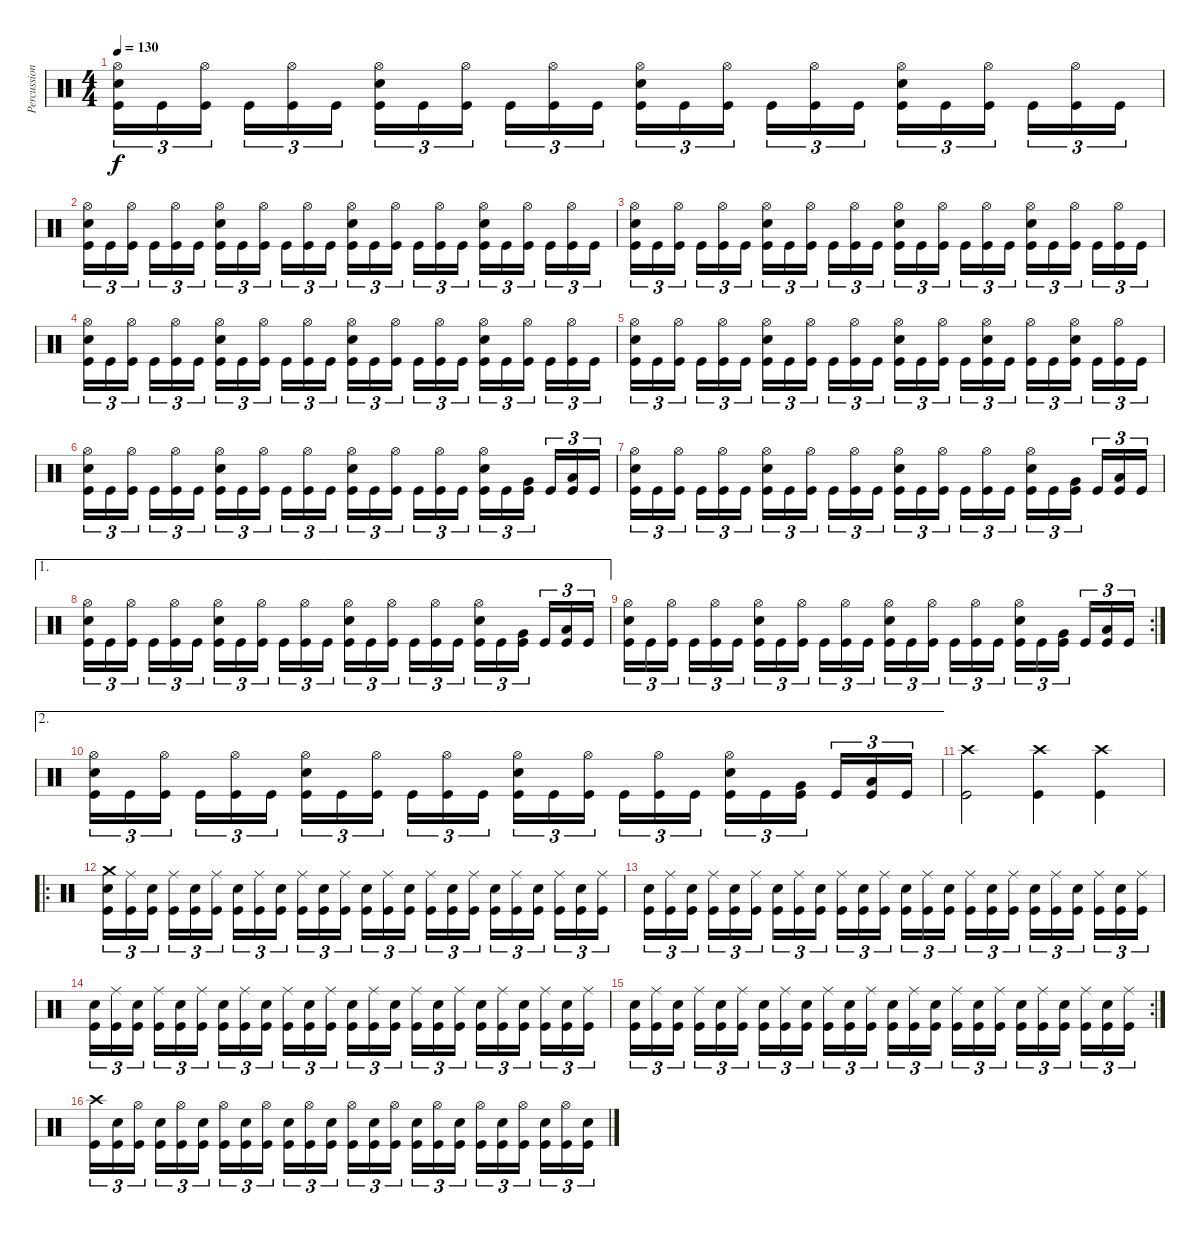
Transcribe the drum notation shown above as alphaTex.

\track ("Percussion" "Percussion") {instrument percussion}
\staff {score}
\articulation defaults
\ts (4 4)
\tempo 130
\clef neutral
\ks c
("Hi-Hat (open)" "Electric Snare (hit)" "Kick (hit)").16{tu (3 2) dy f} "Kick (hit)".16{tu (3 2)} ("Hi-Hat (open)" "Kick (hit)").16{tu (3 2)} "Kick (hit)".16{tu (3 2)} ("Hi-Hat (open)" "Kick (hit)").16{tu (3 2)} "Kick (hit)".16{tu (3 2)} ("Hi-Hat (open)" "Electric Snare (hit)" "Kick (hit)").16{tu (3 2)} "Kick (hit)".16{tu (3 2)} ("Hi-Hat (open)" "Kick (hit)").16{tu (3 2)} "Kick (hit)".16{tu (3 2)} ("Hi-Hat (open)" "Kick (hit)").16{tu (3 2)} "Kick (hit)".16{tu (3 2)} ("Hi-Hat (open)" "Electric Snare (hit)" "Kick (hit)").16{tu (3 2)} "Kick (hit)".16{tu (3 2)} ("Hi-Hat (open)" "Kick (hit)").16{tu (3 2)} "Kick (hit)".16{tu (3 2)} ("Hi-Hat (open)" "Kick (hit)").16{tu (3 2)} "Kick (hit)".16{tu (3 2)} ("Hi-Hat (open)" "Electric Snare (hit)" "Kick (hit)").16{tu (3 2)} "Kick (hit)".16{tu (3 2)} ("Hi-Hat (open)" "Kick (hit)").16{tu (3 2)} "Kick (hit)".16{tu (3 2)} ("Hi-Hat (open)" "Kick (hit)").16{tu (3 2)} "Kick (hit)".16{tu (3 2)} |
("Hi-Hat (open)" "Electric Snare (hit)" "Kick (hit)").16{tu (3 2)} "Kick (hit)".16{tu (3 2)} ("Hi-Hat (open)" "Kick (hit)").16{tu (3 2)} "Kick (hit)".16{tu (3 2)} ("Hi-Hat (open)" "Kick (hit)").16{tu (3 2)} "Kick (hit)".16{tu (3 2)} ("Hi-Hat (open)" "Electric Snare (hit)" "Kick (hit)").16{tu (3 2)} "Kick (hit)".16{tu (3 2)} ("Hi-Hat (open)" "Kick (hit)").16{tu (3 2)} "Kick (hit)".16{tu (3 2)} ("Hi-Hat (open)" "Kick (hit)").16{tu (3 2)} "Kick (hit)".16{tu (3 2)} ("Hi-Hat (open)" "Electric Snare (hit)" "Kick (hit)").16{tu (3 2)} "Kick (hit)".16{tu (3 2)} ("Hi-Hat (open)" "Kick (hit)").16{tu (3 2)} "Kick (hit)".16{tu (3 2)} ("Hi-Hat (open)" "Kick (hit)").16{tu (3 2)} "Kick (hit)".16{tu (3 2)} ("Hi-Hat (open)" "Electric Snare (hit)" "Kick (hit)").16{tu (3 2)} "Kick (hit)".16{tu (3 2)} ("Hi-Hat (open)" "Kick (hit)").16{tu (3 2)} "Kick (hit)".16{tu (3 2)} ("Hi-Hat (open)" "Kick (hit)").16{tu (3 2)} "Kick (hit)".16{tu (3 2)} |
("Hi-Hat (open)" "Electric Snare (hit)" "Kick (hit)").16{tu (3 2)} "Kick (hit)".16{tu (3 2)} ("Hi-Hat (open)" "Kick (hit)").16{tu (3 2)} "Kick (hit)".16{tu (3 2)} ("Hi-Hat (open)" "Kick (hit)").16{tu (3 2)} "Kick (hit)".16{tu (3 2)} ("Hi-Hat (open)" "Electric Snare (hit)" "Kick (hit)").16{tu (3 2)} "Kick (hit)".16{tu (3 2)} ("Hi-Hat (open)" "Kick (hit)").16{tu (3 2)} "Kick (hit)".16{tu (3 2)} ("Hi-Hat (open)" "Kick (hit)").16{tu (3 2)} "Kick (hit)".16{tu (3 2)} ("Hi-Hat (open)" "Electric Snare (hit)" "Kick (hit)").16{tu (3 2)} "Kick (hit)".16{tu (3 2)} ("Hi-Hat (open)" "Kick (hit)").16{tu (3 2)} "Kick (hit)".16{tu (3 2)} ("Hi-Hat (open)" "Kick (hit)").16{tu (3 2)} "Kick (hit)".16{tu (3 2)} ("Hi-Hat (open)" "Electric Snare (hit)" "Kick (hit)").16{tu (3 2)} "Kick (hit)".16{tu (3 2)} ("Hi-Hat (open)" "Kick (hit)").16{tu (3 2)} "Kick (hit)".16{tu (3 2)} ("Hi-Hat (open)" "Kick (hit)").16{tu (3 2)} "Kick (hit)".16{tu (3 2)} |
("Hi-Hat (open)" "Electric Snare (hit)" "Kick (hit)").16{tu (3 2)} "Kick (hit)".16{tu (3 2)} ("Hi-Hat (open)" "Kick (hit)").16{tu (3 2)} "Kick (hit)".16{tu (3 2)} ("Hi-Hat (open)" "Kick (hit)").16{tu (3 2)} "Kick (hit)".16{tu (3 2)} ("Hi-Hat (open)" "Electric Snare (hit)" "Kick (hit)").16{tu (3 2)} "Kick (hit)".16{tu (3 2)} ("Hi-Hat (open)" "Kick (hit)").16{tu (3 2)} "Kick (hit)".16{tu (3 2)} ("Hi-Hat (open)" "Kick (hit)").16{tu (3 2)} "Kick (hit)".16{tu (3 2)} ("Hi-Hat (open)" "Electric Snare (hit)" "Kick (hit)").16{tu (3 2)} "Kick (hit)".16{tu (3 2)} ("Hi-Hat (open)" "Kick (hit)").16{tu (3 2)} "Kick (hit)".16{tu (3 2)} ("Hi-Hat (open)" "Kick (hit)").16{tu (3 2)} "Kick (hit)".16{tu (3 2)} ("Hi-Hat (open)" "Electric Snare (hit)" "Kick (hit)").16{tu (3 2)} "Kick (hit)".16{tu (3 2)} ("Hi-Hat (open)" "Kick (hit)").16{tu (3 2)} "Kick (hit)".16{tu (3 2)} ("Hi-Hat (open)" "Kick (hit)").16{tu (3 2)} "Kick (hit)".16{tu (3 2)} |
("Hi-Hat (open)" "Electric Snare (hit)" "Kick (hit)").16{tu (3 2)} "Kick (hit)".16{tu (3 2)} ("Hi-Hat (open)" "Kick (hit)").16{tu (3 2)} "Kick (hit)".16{tu (3 2)} ("Hi-Hat (open)" "Kick (hit)").16{tu (3 2)} "Kick (hit)".16{tu (3 2)} ("Hi-Hat (open)" "Electric Snare (hit)" "Kick (hit)").16{tu (3 2)} "Kick (hit)".16{tu (3 2)} ("Hi-Hat (open)" "Kick (hit)").16{tu (3 2)} "Kick (hit)".16{tu (3 2)} ("Hi-Hat (open)" "Kick (hit)").16{tu (3 2)} "Kick (hit)".16{tu (3 2)} ("Hi-Hat (open)" "Electric Snare (hit)" "Kick (hit)").16{tu (3 2)} "Kick (hit)".16{tu (3 2)} ("Hi-Hat (open)" "Kick (hit)").16{tu (3 2)} "Kick (hit)".16{tu (3 2)} ("Hi-Hat (open)" "Electric Snare (hit)" "Kick (hit)").16{tu (3 2)} "Kick (hit)".16{tu (3 2)} ("Hi-Hat (open)" "Kick (hit)").16{tu (3 2)} "Kick (hit)".16{tu (3 2)} ("Hi-Hat (open)" "Electric Snare (hit)" "Kick (hit)").16{tu (3 2)} "Kick (hit)".16{tu (3 2)} ("Hi-Hat (open)" "Kick (hit)").16{tu (3 2)} "Kick (hit)".16{tu (3 2)} |
("Hi-Hat (open)" "Electric Snare (hit)" "Kick (hit)").16{tu (3 2)} "Kick (hit)".16{tu (3 2)} ("Hi-Hat (open)" "Kick (hit)").16{tu (3 2)} "Kick (hit)".16{tu (3 2)} ("Hi-Hat (open)" "Kick (hit)").16{tu (3 2)} "Kick (hit)".16{tu (3 2)} ("Hi-Hat (open)" "Electric Snare (hit)" "Kick (hit)").16{tu (3 2)} "Kick (hit)".16{tu (3 2)} ("Hi-Hat (open)" "Kick (hit)").16{tu (3 2)} "Kick (hit)".16{tu (3 2)} ("Hi-Hat (open)" "Kick (hit)").16{tu (3 2)} "Kick (hit)".16{tu (3 2)} ("Hi-Hat (open)" "Electric Snare (hit)" "Kick (hit)").16{tu (3 2)} "Kick (hit)".16{tu (3 2)} ("Hi-Hat (open)" "Kick (hit)").16{tu (3 2)} "Kick (hit)".16{tu (3 2)} ("Hi-Hat (open)" "Kick (hit)").16{tu (3 2)} "Kick (hit)".16{tu (3 2)} ("Hi-Hat (open)" "Electric Snare (hit)" "Kick (hit)").16{tu (3 2)} "Kick (hit)".16{tu (3 2)} ("Very Low Tom (hit)" "Kick (hit)").16{tu (3 2)} "Kick (hit)".16{tu (3 2)} ("Low Floor Tom (hit)" "Kick (hit)").16{tu (3 2)} "Kick (hit)".16{tu (3 2)} |
("Hi-Hat (open)" "Electric Snare (hit)" "Kick (hit)").16{tu (3 2)} "Kick (hit)".16{tu (3 2)} ("Hi-Hat (open)" "Kick (hit)").16{tu (3 2)} "Kick (hit)".16{tu (3 2)} ("Hi-Hat (open)" "Kick (hit)").16{tu (3 2)} "Kick (hit)".16{tu (3 2)} ("Hi-Hat (open)" "Electric Snare (hit)" "Kick (hit)").16{tu (3 2)} "Kick (hit)".16{tu (3 2)} ("Hi-Hat (open)" "Kick (hit)").16{tu (3 2)} "Kick (hit)".16{tu (3 2)} ("Hi-Hat (open)" "Kick (hit)").16{tu (3 2)} "Kick (hit)".16{tu (3 2)} ("Hi-Hat (open)" "Electric Snare (hit)" "Kick (hit)").16{tu (3 2)} "Kick (hit)".16{tu (3 2)} ("Hi-Hat (open)" "Kick (hit)").16{tu (3 2)} "Kick (hit)".16{tu (3 2)} ("Hi-Hat (open)" "Kick (hit)").16{tu (3 2)} "Kick (hit)".16{tu (3 2)} ("Hi-Hat (open)" "Electric Snare (hit)" "Kick (hit)").16{tu (3 2)} "Kick (hit)".16{tu (3 2)} ("Very Low Tom (hit)" "Kick (hit)").16{tu (3 2)} "Kick (hit)".16{tu (3 2)} ("Low Floor Tom (hit)" "Kick (hit)").16{tu (3 2)} "Kick (hit)".16{tu (3 2)} |
\ae 1
("Hi-Hat (open)" "Electric Snare (hit)" "Kick (hit)").16{tu (3 2)} "Kick (hit)".16{tu (3 2)} ("Hi-Hat (open)" "Kick (hit)").16{tu (3 2)} "Kick (hit)".16{tu (3 2)} ("Hi-Hat (open)" "Kick (hit)").16{tu (3 2)} "Kick (hit)".16{tu (3 2)} ("Hi-Hat (open)" "Electric Snare (hit)" "Kick (hit)").16{tu (3 2)} "Kick (hit)".16{tu (3 2)} ("Hi-Hat (open)" "Kick (hit)").16{tu (3 2)} "Kick (hit)".16{tu (3 2)} ("Hi-Hat (open)" "Kick (hit)").16{tu (3 2)} "Kick (hit)".16{tu (3 2)} ("Hi-Hat (open)" "Electric Snare (hit)" "Kick (hit)").16{tu (3 2)} "Kick (hit)".16{tu (3 2)} ("Hi-Hat (open)" "Kick (hit)").16{tu (3 2)} "Kick (hit)".16{tu (3 2)} ("Hi-Hat (open)" "Kick (hit)").16{tu (3 2)} "Kick (hit)".16{tu (3 2)} ("Hi-Hat (open)" "Electric Snare (hit)" "Kick (hit)").16{tu (3 2)} "Kick (hit)".16{tu (3 2)} ("Very Low Tom (hit)" "Kick (hit)").16{tu (3 2)} "Kick (hit)".16{tu (3 2)} ("Low Floor Tom (hit)" "Kick (hit)").16{tu (3 2)} "Kick (hit)".16{tu (3 2)} |
\rc 2
("Hi-Hat (open)" "Electric Snare (hit)" "Kick (hit)").16{tu (3 2)} "Kick (hit)".16{tu (3 2)} ("Hi-Hat (open)" "Kick (hit)").16{tu (3 2)} "Kick (hit)".16{tu (3 2)} ("Hi-Hat (open)" "Kick (hit)").16{tu (3 2)} "Kick (hit)".16{tu (3 2)} ("Hi-Hat (open)" "Electric Snare (hit)" "Kick (hit)").16{tu (3 2)} "Kick (hit)".16{tu (3 2)} ("Hi-Hat (open)" "Kick (hit)").16{tu (3 2)} "Kick (hit)".16{tu (3 2)} ("Hi-Hat (open)" "Kick (hit)").16{tu (3 2)} "Kick (hit)".16{tu (3 2)} ("Hi-Hat (open)" "Electric Snare (hit)" "Kick (hit)").16{tu (3 2)} "Kick (hit)".16{tu (3 2)} ("Hi-Hat (open)" "Kick (hit)").16{tu (3 2)} "Kick (hit)".16{tu (3 2)} ("Hi-Hat (open)" "Kick (hit)").16{tu (3 2)} "Kick (hit)".16{tu (3 2)} ("Hi-Hat (open)" "Electric Snare (hit)" "Kick (hit)").16{tu (3 2)} "Kick (hit)".16{tu (3 2)} ("Very Low Tom (hit)" "Kick (hit)").16{tu (3 2)} "Kick (hit)".16{tu (3 2)} ("Low Floor Tom (hit)" "Kick (hit)").16{tu (3 2)} "Kick (hit)".16{tu (3 2)} |
\ae 2
("Hi-Hat (open)" "Electric Snare (hit)" "Kick (hit)").16{tu (3 2)} "Kick (hit)".16{tu (3 2)} ("Hi-Hat (open)" "Kick (hit)").16{tu (3 2)} "Kick (hit)".16{tu (3 2)} ("Hi-Hat (open)" "Kick (hit)").16{tu (3 2)} "Kick (hit)".16{tu (3 2)} ("Hi-Hat (open)" "Electric Snare (hit)" "Kick (hit)").16{tu (3 2)} "Kick (hit)".16{tu (3 2)} ("Hi-Hat (open)" "Kick (hit)").16{tu (3 2)} "Kick (hit)".16{tu (3 2)} ("Hi-Hat (open)" "Kick (hit)").16{tu (3 2)} "Kick (hit)".16{tu (3 2)} ("Hi-Hat (open)" "Electric Snare (hit)" "Kick (hit)").16{tu (3 2)} "Kick (hit)".16{tu (3 2)} ("Hi-Hat (open)" "Kick (hit)").16{tu (3 2)} "Kick (hit)".16{tu (3 2)} ("Hi-Hat (open)" "Kick (hit)").16{tu (3 2)} "Kick (hit)".16{tu (3 2)} ("Hi-Hat (open)" "Electric Snare (hit)" "Kick (hit)").16{tu (3 2)} "Kick (hit)".16{tu (3 2)} ("Very Low Tom (hit)" "Kick (hit)").16{tu (3 2)} "Kick (hit)".16{tu (3 2)} ("Low Floor Tom (hit)" "Kick (hit)").16{tu (3 2)} "Kick (hit)".16{tu (3 2)} |
("Crash high (hit)" "Kick (hit)").2 ("Crash high (hit)" "Kick (hit)").4 ("Crash high (hit)" "Kick (hit)").4 |
\ro
("Crash medium (hit)" "Electric Snare (hit)" "Kick (hit)").16{tu (3 2)} ("Ride (middle)" "Kick (hit)").16{tu (3 2)} ("Electric Snare (hit)" "Kick (hit)").16{tu (3 2)} ("Ride (middle)" "Kick (hit)").16{tu (3 2)} ("Electric Snare (hit)" "Kick (hit)").16{tu (3 2)} ("Ride (middle)" "Kick (hit)").16{tu (3 2)} ("Electric Snare (hit)" "Kick (hit)").16{tu (3 2)} ("Ride (middle)" "Kick (hit)").16{tu (3 2)} ("Electric Snare (hit)" "Kick (hit)").16{tu (3 2)} ("Ride (middle)" "Kick (hit)").16{tu (3 2)} ("Electric Snare (hit)" "Kick (hit)").16{tu (3 2)} ("Ride (middle)" "Kick (hit)").16{tu (3 2)} ("Electric Snare (hit)" "Kick (hit)").16{tu (3 2)} ("Ride (middle)" "Kick (hit)").16{tu (3 2)} ("Electric Snare (hit)" "Kick (hit)").16{tu (3 2)} ("Ride (middle)" "Kick (hit)").16{tu (3 2)} ("Electric Snare (hit)" "Kick (hit)").16{tu (3 2)} ("Ride (middle)" "Kick (hit)").16{tu (3 2)} ("Electric Snare (hit)" "Kick (hit)").16{tu (3 2)} ("Ride (middle)" "Kick (hit)").16{tu (3 2)} ("Electric Snare (hit)" "Kick (hit)").16{tu (3 2)} ("Ride (middle)" "Kick (hit)").16{tu (3 2)} ("Electric Snare (hit)" "Kick (hit)").16{tu (3 2)} ("Ride (middle)" "Kick (hit)").16{tu (3 2)} |
("Electric Snare (hit)" "Kick (hit)").16{tu (3 2)} ("Ride (middle)" "Kick (hit)").16{tu (3 2)} ("Electric Snare (hit)" "Kick (hit)").16{tu (3 2)} ("Ride (middle)" "Kick (hit)").16{tu (3 2)} ("Electric Snare (hit)" "Kick (hit)").16{tu (3 2)} ("Ride (middle)" "Kick (hit)").16{tu (3 2)} ("Electric Snare (hit)" "Kick (hit)").16{tu (3 2)} ("Ride (middle)" "Kick (hit)").16{tu (3 2)} ("Electric Snare (hit)" "Kick (hit)").16{tu (3 2)} ("Ride (middle)" "Kick (hit)").16{tu (3 2)} ("Electric Snare (hit)" "Kick (hit)").16{tu (3 2)} ("Ride (middle)" "Kick (hit)").16{tu (3 2)} ("Electric Snare (hit)" "Kick (hit)").16{tu (3 2)} ("Ride (middle)" "Kick (hit)").16{tu (3 2)} ("Electric Snare (hit)" "Kick (hit)").16{tu (3 2)} ("Ride (middle)" "Kick (hit)").16{tu (3 2)} ("Electric Snare (hit)" "Kick (hit)").16{tu (3 2)} ("Ride (middle)" "Kick (hit)").16{tu (3 2)} ("Electric Snare (hit)" "Kick (hit)").16{tu (3 2)} ("Ride (middle)" "Kick (hit)").16{tu (3 2)} ("Electric Snare (hit)" "Kick (hit)").16{tu (3 2)} ("Ride (middle)" "Kick (hit)").16{tu (3 2)} ("Electric Snare (hit)" "Kick (hit)").16{tu (3 2)} ("Ride (middle)" "Kick (hit)").16{tu (3 2)} |
("Electric Snare (hit)" "Kick (hit)").16{tu (3 2)} ("Ride (middle)" "Kick (hit)").16{tu (3 2)} ("Electric Snare (hit)" "Kick (hit)").16{tu (3 2)} ("Ride (middle)" "Kick (hit)").16{tu (3 2)} ("Electric Snare (hit)" "Kick (hit)").16{tu (3 2)} ("Ride (middle)" "Kick (hit)").16{tu (3 2)} ("Electric Snare (hit)" "Kick (hit)").16{tu (3 2)} ("Ride (middle)" "Kick (hit)").16{tu (3 2)} ("Electric Snare (hit)" "Kick (hit)").16{tu (3 2)} ("Ride (middle)" "Kick (hit)").16{tu (3 2)} ("Electric Snare (hit)" "Kick (hit)").16{tu (3 2)} ("Ride (middle)" "Kick (hit)").16{tu (3 2)} ("Electric Snare (hit)" "Kick (hit)").16{tu (3 2)} ("Ride (middle)" "Kick (hit)").16{tu (3 2)} ("Electric Snare (hit)" "Kick (hit)").16{tu (3 2)} ("Ride (middle)" "Kick (hit)").16{tu (3 2)} ("Electric Snare (hit)" "Kick (hit)").16{tu (3 2)} ("Ride (middle)" "Kick (hit)").16{tu (3 2)} ("Electric Snare (hit)" "Kick (hit)").16{tu (3 2)} ("Ride (middle)" "Kick (hit)").16{tu (3 2)} ("Electric Snare (hit)" "Kick (hit)").16{tu (3 2)} ("Ride (middle)" "Kick (hit)").16{tu (3 2)} ("Electric Snare (hit)" "Kick (hit)").16{tu (3 2)} ("Ride (middle)" "Kick (hit)").16{tu (3 2)} |
\rc 2
("Electric Snare (hit)" "Kick (hit)").16{tu (3 2)} ("Ride (middle)" "Kick (hit)").16{tu (3 2)} ("Electric Snare (hit)" "Kick (hit)").16{tu (3 2)} ("Ride (middle)" "Kick (hit)").16{tu (3 2)} ("Electric Snare (hit)" "Kick (hit)").16{tu (3 2)} ("Ride (middle)" "Kick (hit)").16{tu (3 2)} ("Electric Snare (hit)" "Kick (hit)").16{tu (3 2)} ("Ride (middle)" "Kick (hit)").16{tu (3 2)} ("Electric Snare (hit)" "Kick (hit)").16{tu (3 2)} ("Ride (middle)" "Kick (hit)").16{tu (3 2)} ("Electric Snare (hit)" "Kick (hit)").16{tu (3 2)} ("Ride (middle)" "Kick (hit)").16{tu (3 2)} ("Electric Snare (hit)" "Kick (hit)").16{tu (3 2)} ("Ride (middle)" "Kick (hit)").16{tu (3 2)} ("Electric Snare (hit)" "Kick (hit)").16{tu (3 2)} ("Ride (middle)" "Kick (hit)").16{tu (3 2)} ("Electric Snare (hit)" "Kick (hit)").16{tu (3 2)} ("Ride (middle)" "Kick (hit)").16{tu (3 2)} ("Electric Snare (hit)" "Kick (hit)").16{tu (3 2)} ("Ride (middle)" "Kick (hit)").16{tu (3 2)} ("Electric Snare (hit)" "Kick (hit)").16{tu (3 2)} ("Ride (middle)" "Kick (hit)").16{tu (3 2)} ("Electric Snare (hit)" "Kick (hit)").16{tu (3 2)} ("Ride (middle)" "Kick (hit)").16{tu (3 2)} |
("Crash high (hit)" "Kick (hit)").16{tu (3 2)} ("Electric Snare (hit)" "Kick (hit)").16{tu (3 2)} ("Hi-Hat (open)" "Kick (hit)").16{tu (3 2)} ("Electric Snare (hit)" "Kick (hit)").16{tu (3 2)} ("Hi-Hat (open)" "Kick (hit)").16{tu (3 2)} ("Electric Snare (hit)" "Kick (hit)").16{tu (3 2)} ("Hi-Hat (open)" "Kick (hit)").16{tu (3 2)} ("Electric Snare (hit)" "Kick (hit)").16{tu (3 2)} ("Hi-Hat (open)" "Kick (hit)").16{tu (3 2)} ("Electric Snare (hit)" "Kick (hit)").16{tu (3 2)} ("Hi-Hat (open)" "Kick (hit)").16{tu (3 2)} ("Electric Snare (hit)" "Kick (hit)").16{tu (3 2)} ("Hi-Hat (open)" "Kick (hit)").16{tu (3 2)} ("Electric Snare (hit)" "Kick (hit)").16{tu (3 2)} ("Hi-Hat (open)" "Kick (hit)").16{tu (3 2)} ("Electric Snare (hit)" "Kick (hit)").16{tu (3 2)} ("Hi-Hat (open)" "Kick (hit)").16{tu (3 2)} ("Electric Snare (hit)" "Kick (hit)").16{tu (3 2)} ("Hi-Hat (open)" "Kick (hit)").16{tu (3 2)} ("Electric Snare (hit)" "Kick (hit)").16{tu (3 2)} ("Hi-Hat (open)" "Kick (hit)").16{tu (3 2)} ("Electric Snare (hit)" "Kick (hit)").16{tu (3 2)} ("Hi-Hat (open)" "Kick (hit)").16{tu (3 2)} ("Electric Snare (hit)" "Kick (hit)").16{tu (3 2)}
